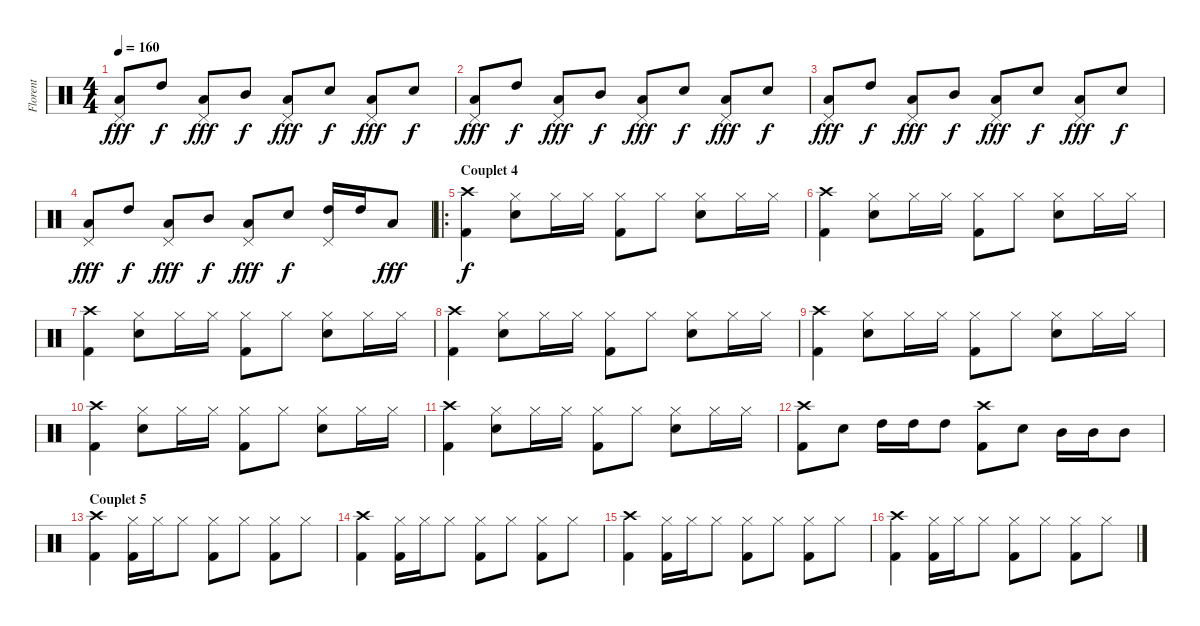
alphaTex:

\track ("Florent" "Florent") {instrument percussion}
\staff {score}
\articulation defaults
\ts (4 4)
\tempo 160
\clef neutral
\ks c
("Low Tom (hit)" "Pedal Hi-Hat (hit)").8{dy fff} "High Tom (hit)".8{dy f} ("Low Tom (hit)" "Pedal Hi-Hat (hit)").8{dy fff} "Mid Tom (hit)".8{dy f} ("Low Tom (hit)" "Pedal Hi-Hat (hit)").8{dy fff} "Snare (hit) 2".8{dy f} ("Low Tom (hit)" "Pedal Hi-Hat (hit)").8{dy fff} "Snare (hit) 2".8{dy f} |
("Low Tom (hit)" "Pedal Hi-Hat (hit)").8{dy fff} "High Tom (hit)".8{dy f} ("Low Tom (hit)" "Pedal Hi-Hat (hit)").8{dy fff} "Mid Tom (hit)".8{dy f} ("Low Tom (hit)" "Pedal Hi-Hat (hit)").8{dy fff} "Snare (hit) 2".8{dy f} ("Low Tom (hit)" "Pedal Hi-Hat (hit)").8{dy fff} "Snare (hit) 2".8{dy f} |
("Low Tom (hit)" "Pedal Hi-Hat (hit)").8{dy fff} "High Tom (hit)".8{dy f} ("Low Tom (hit)" "Pedal Hi-Hat (hit)").8{dy fff} "Mid Tom (hit)".8{dy f} ("Low Tom (hit)" "Pedal Hi-Hat (hit)").8{dy fff} "Snare (hit) 2".8{dy f} ("Low Tom (hit)" "Pedal Hi-Hat (hit)").8{dy fff} "Snare (hit) 2".8{dy f} |
("Low Tom (hit)" "Pedal Hi-Hat (hit)").8{dy fff} "High Tom (hit)".8{dy f} ("Low Tom (hit)" "Pedal Hi-Hat (hit)").8{dy fff} "Mid Tom (hit)".8{dy f} ("Low Tom (hit)" "Pedal Hi-Hat (hit)").8{dy fff} "Snare (hit) 2".8{dy f} ("High Tom (hit)" "Pedal Hi-Hat (hit)").16 "High Tom (hit)".16 "Low Tom (hit)".8{dy fff} |
\ro
\section ("" "Couplet 4")
("Crash high (hit)" "Kick (hit) 2").4{dy f} ("Hi-Hat (closed)" "Snare (hit) 2").8 "Hi-Hat (closed)".16 "Hi-Hat (closed)".16 ("Hi-Hat (closed)" "Kick (hit) 2").8 "Hi-Hat (closed)".8 ("Hi-Hat (closed)" "Snare (hit) 2").8 "Hi-Hat (closed)".16 "Hi-Hat (closed)".16 |
("Crash high (hit)" "Kick (hit) 2").4 ("Hi-Hat (closed)" "Snare (hit) 2").8 "Hi-Hat (closed)".16 "Hi-Hat (closed)".16 ("Hi-Hat (closed)" "Kick (hit) 2").8 "Hi-Hat (closed)".8 ("Hi-Hat (closed)" "Snare (hit) 2").8 "Hi-Hat (closed)".16 "Hi-Hat (closed)".16 |
("Crash high (hit)" "Kick (hit) 2").4 ("Hi-Hat (closed)" "Snare (hit) 2").8 "Hi-Hat (closed)".16 "Hi-Hat (closed)".16 ("Hi-Hat (closed)" "Kick (hit) 2").8 "Hi-Hat (closed)".8 ("Hi-Hat (closed)" "Snare (hit) 2").8 "Hi-Hat (closed)".16 "Hi-Hat (closed)".16 |
("Crash high (hit)" "Kick (hit) 2").4 ("Hi-Hat (closed)" "Snare (hit) 2").8 "Hi-Hat (closed)".16 "Hi-Hat (closed)".16 ("Hi-Hat (closed)" "Kick (hit) 2").8 "Hi-Hat (closed)".8 ("Hi-Hat (closed)" "Snare (hit) 2").8 "Hi-Hat (closed)".16 "Hi-Hat (closed)".16 |
("Crash high (hit)" "Kick (hit) 2").4 ("Hi-Hat (closed)" "Snare (hit) 2").8 "Hi-Hat (closed)".16 "Hi-Hat (closed)".16 ("Hi-Hat (closed)" "Kick (hit) 2").8 "Hi-Hat (closed)".8 ("Hi-Hat (closed)" "Snare (hit) 2").8 "Hi-Hat (closed)".16 "Hi-Hat (closed)".16 |
("Crash high (hit)" "Kick (hit) 2").4 ("Hi-Hat (closed)" "Snare (hit) 2").8 "Hi-Hat (closed)".16 "Hi-Hat (closed)".16 ("Hi-Hat (closed)" "Kick (hit) 2").8 "Hi-Hat (closed)".8 ("Hi-Hat (closed)" "Snare (hit) 2").8 "Hi-Hat (closed)".16 "Hi-Hat (closed)".16 |
("Crash high (hit)" "Kick (hit) 2").4 ("Hi-Hat (closed)" "Snare (hit) 2").8 "Hi-Hat (closed)".16 "Hi-Hat (closed)".16 ("Hi-Hat (closed)" "Kick (hit) 2").8 "Hi-Hat (closed)".8 ("Hi-Hat (closed)" "Snare (hit) 2").8 "Hi-Hat (closed)".16 "Hi-Hat (closed)".16 |
("Crash high (hit)" "Kick (hit) 2").8 "Snare (hit) 2".8 "High Tom (hit)".16 "High Tom (hit)".16 "High Tom (hit)".8 ("Crash high (hit)" "Kick (hit) 2").8 "Snare (hit) 2".8 "Mid Tom (hit)".16 "Mid Tom (hit)".16 "Mid Tom (hit)".8 |
\section ("" "Couplet 5")
("Crash high (hit)" "Kick (hit) 2").4 ("Hi-Hat (closed)" "Kick (hit) 2").16 "Hi-Hat (closed)".16 "Hi-Hat (closed)".8 ("Hi-Hat (closed)" "Kick (hit) 2").8 "Hi-Hat (closed)".8 ("Hi-Hat (closed)" "Kick (hit) 2").8 "Hi-Hat (closed)".8 |
("Crash high (hit)" "Kick (hit) 2").4 ("Hi-Hat (closed)" "Kick (hit) 2").16 "Hi-Hat (closed)".16 "Hi-Hat (closed)".8 ("Hi-Hat (closed)" "Kick (hit) 2").8 "Hi-Hat (closed)".8 ("Hi-Hat (closed)" "Kick (hit) 2").8 "Hi-Hat (closed)".8 |
("Crash high (hit)" "Kick (hit) 2").4 ("Hi-Hat (closed)" "Kick (hit) 2").16 "Hi-Hat (closed)".16 "Hi-Hat (closed)".8 ("Hi-Hat (closed)" "Kick (hit) 2").8 "Hi-Hat (closed)".8 ("Hi-Hat (closed)" "Kick (hit) 2").8 "Hi-Hat (closed)".8 |
("Crash high (hit)" "Kick (hit) 2").4 ("Hi-Hat (closed)" "Kick (hit) 2").16 "Hi-Hat (closed)".16 "Hi-Hat (closed)".8 ("Hi-Hat (closed)" "Kick (hit) 2").8 "Hi-Hat (closed)".8 ("Hi-Hat (closed)" "Kick (hit) 2").8 "Hi-Hat (closed)".8
